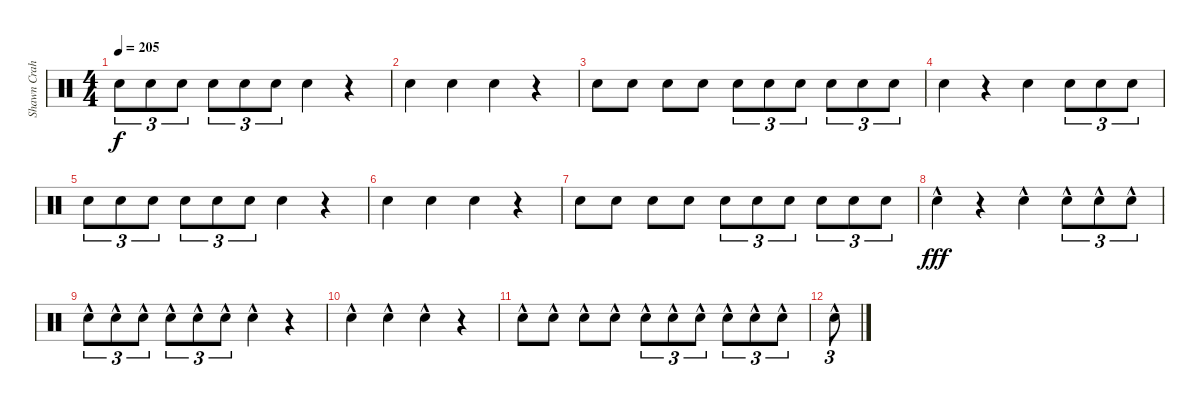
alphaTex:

\track ("Shawn Crahan" "Shawn Crah") {instrument percussion}
\staff {score}
\articulation defaults
\ts (4 4)
\tempo 205
\clef neutral
\ks c "Electric Snare (hit)".8{tu (3 2) dy f} "Electric Snare (hit)".8{tu (3 2)} "Electric Snare (hit)".8{tu (3 2)} "Electric Snare (hit)".8{tu (3 2)} "Electric Snare (hit)".8{tu (3 2)} "Electric Snare (hit)".8{tu (3 2)} "Electric Snare (hit)".4
r.4 |
"Electric Snare (hit)".4 "Electric Snare (hit)".4 "Electric Snare (hit)".4 r.4 |
"Electric Snare (hit)".8 "Electric Snare (hit)".8 "Electric Snare (hit)".8 "Electric Snare (hit)".8 "Electric Snare (hit)".8{tu (3 2)} "Electric Snare (hit)".8{tu (3 2)} "Electric Snare (hit)".8{tu (3 2)} "Electric Snare (hit)".8{tu (3 2)} "Electric Snare (hit)".8{tu (3 2)} "Electric Snare (hit)".8{tu (3 2)} |
"Electric Snare (hit)".4 r.4 "Electric Snare (hit)".4 "Electric Snare (hit)".8{tu (3 2)} "Electric Snare (hit)".8{tu (3 2)} "Electric Snare (hit)".8{tu (3 2)} |
"Electric Snare (hit)".8{tu (3 2)} "Electric Snare (hit)".8{tu (3 2)} "Electric Snare (hit)".8{tu (3 2)} "Electric Snare (hit)".8{tu (3 2)} "Electric Snare (hit)".8{tu (3 2)} "Electric Snare (hit)".8{tu (3 2)} "Electric Snare (hit)".4 r.4 |
"Electric Snare (hit)".4 "Electric Snare (hit)".4 "Electric Snare (hit)".4 r.4 |
"Electric Snare (hit)".8 "Electric Snare (hit)".8 "Electric Snare (hit)".8 "Electric Snare (hit)".8 "Electric Snare (hit)".8{tu (3 2)} "Electric Snare (hit)".8{tu (3 2)} "Electric Snare (hit)".8{tu (3 2)} "Electric Snare (hit)".8{tu (3 2)} "Electric Snare (hit)".8{tu (3 2)} "Electric Snare (hit)".8{tu (3 2)} |
"Electric Snare (hit)"{hac}.4{dy fff} r.4 "Electric Snare (hit)"{hac}.4 "Electric Snare (hit)"{hac}.8{tu (3 2)} "Electric Snare (hit)"{hac}.8{tu (3 2)} "Electric Snare (hit)"{hac}.8{tu (3 2)} |
"Electric Snare (hit)"{hac}.8{tu (3 2)} "Electric Snare (hit)"{hac}.8{tu (3 2)} "Electric Snare (hit)"{hac}.8{tu (3 2)} "Electric Snare (hit)"{hac}.8{tu (3 2)} "Electric Snare (hit)"{hac}.8{tu (3 2)} "Electric Snare (hit)"{hac}.8{tu (3 2)} "Electric Snare (hit)"{hac}.4 r.4 |
"Electric Snare (hit)"{hac}.4 "Electric Snare (hit)"{hac}.4 "Electric Snare (hit)"{hac}.4 r.4 |
"Electric Snare (hit)"{hac}.8 "Electric Snare (hit)"{hac}.8 "Electric Snare (hit)"{hac}.8 "Electric Snare (hit)"{hac}.8 "Electric Snare (hit)"{hac}.8{tu (3 2)} "Electric Snare (hit)"{hac}.8{tu (3 2)} "Electric Snare (hit)"{hac}.8{tu (3 2)} "Electric Snare (hit)"{hac}.8{tu (3 2)} "Electric Snare (hit)"{hac}.8{tu (3 2)} "Electric Snare (hit)"{hac}.8{tu (3 2)} |
"Electric Snare (hit)"{hac}.8{tu (3 2)}
